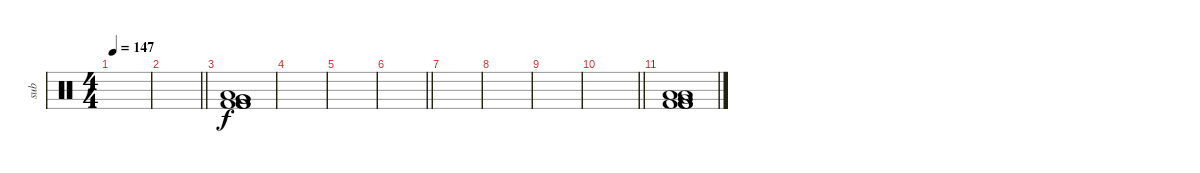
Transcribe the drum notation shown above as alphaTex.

\track ("sub" "sub") {instrument percussion}
\staff {score}
\articulation defaults
\ts (4 4)
\tempo 147
\clef neutral
\ks c
|
\barLineRight lightlight
|
\section ("" "")
("Low Floor Tom (hit)" "Very Low Tom (hit)" "Very Low Tom (hit)" "Kick (hit) 2" "Kick (hit) 2" "Kick (hit) 2").1 |
|
|
\barLineRight lightlight
|
|
|
|
\barLineRight lightlight
|
\section ("" "")
("Low Floor Tom (hit)" "Low Floor Tom (hit)" "Very Low Tom (hit)" "Kick (hit) 2" "Kick (hit) 2" "Kick (hit) 2").1
